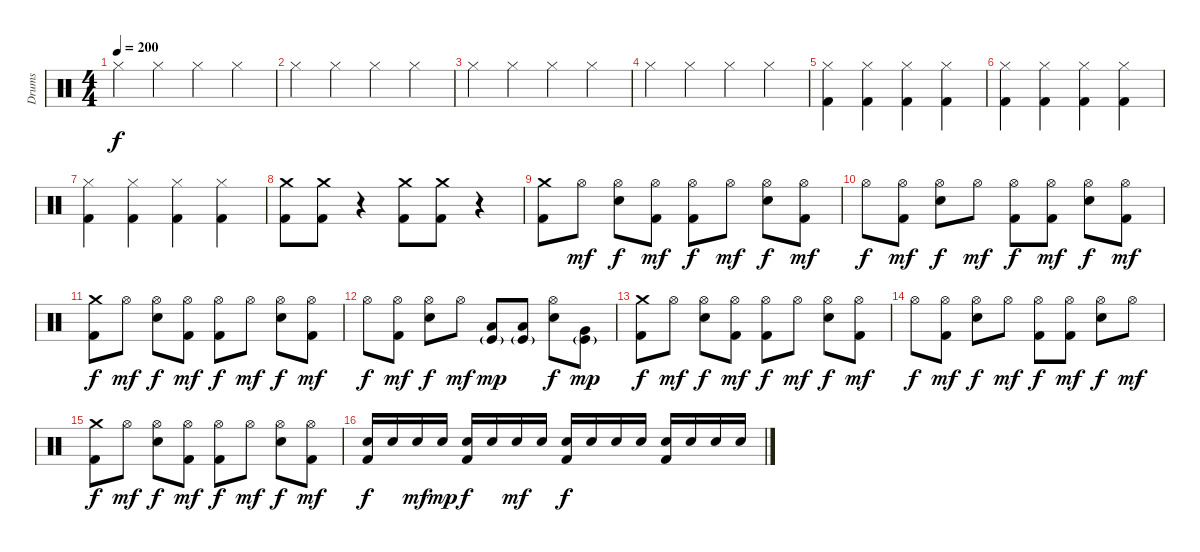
\track ("Drums" "Drums") {instrument percussion}
\staff {score}
\articulation defaults
\ts (4 4)
\tempo 200
\clef neutral
\ks c "Hi-Hat (closed)".4{dy f} "Hi-Hat (closed)".4 "Hi-Hat (closed)".4 "Hi-Hat (closed)".4
|
"Hi-Hat (closed)".4 "Hi-Hat (closed)".4 "Hi-Hat (closed)".4 "Hi-Hat (closed)".4 |
"Hi-Hat (closed)".4 "Hi-Hat (closed)".4 "Hi-Hat (closed)".4 "Hi-Hat (closed)".4 |
"Hi-Hat (closed)".4 "Hi-Hat (closed)".4 "Hi-Hat (closed)".4 "Hi-Hat (closed)".4 |
("Hi-Hat (closed)" "Kick (hit) 2").4 ("Hi-Hat (closed)" "Kick (hit) 2").4 ("Hi-Hat (closed)" "Kick (hit) 2").4 ("Hi-Hat (closed)" "Kick (hit) 2").4 |
("Hi-Hat (closed)" "Kick (hit) 2").4 ("Hi-Hat (closed)" "Kick (hit) 2").4 ("Hi-Hat (closed)" "Kick (hit) 2").4 ("Hi-Hat (closed)" "Kick (hit) 2").4 |
("Hi-Hat (closed)" "Kick (hit) 2").4 ("Hi-Hat (closed)" "Kick (hit) 2").4 ("Hi-Hat (closed)" "Kick (hit) 2").4 ("Hi-Hat (closed)" "Kick (hit) 2").4 |
("Crash medium (hit)" "Kick (hit) 2").8 ("Crash medium (hit)" "Kick (hit) 2").8 r.4 ("Crash medium (hit)" "Kick (hit) 2").8 ("Crash medium (hit)" "Kick (hit) 2").8 r.4 |
("Crash medium (hit)" "Kick (hit) 2").8 "Hi-Hat (open)".8{dy mf} ("Hi-Hat (open)" "Electric Snare (hit)").8{dy f} ("Hi-Hat (open)" "Kick (hit) 2").8{dy mf} ("Hi-Hat (open)" "Kick (hit) 2").8{dy f} "Hi-Hat (open)".8{dy mf} ("Hi-Hat (open)" "Electric Snare (hit)").8{dy f} ("Hi-Hat (open)" "Kick (hit) 2").8{dy mf} |
"Hi-Hat (open)".8{dy f} ("Hi-Hat (open)" "Kick (hit) 2").8{dy mf} ("Hi-Hat (open)" "Electric Snare (hit)").8{dy f} "Hi-Hat (open)".8{dy mf} ("Hi-Hat (open)" "Kick (hit) 2").8{dy f} ("Hi-Hat (open)" "Kick (hit) 2").8{dy mf} ("Hi-Hat (open)" "Electric Snare (hit)").8{dy f} ("Hi-Hat (open)" "Kick (hit) 2").8{dy mf} |
("Crash medium (hit)" "Kick (hit) 2").8{dy f} "Hi-Hat (open)".8{dy mf} ("Hi-Hat (open)" "Electric Snare (hit)").8{dy f} ("Hi-Hat (open)" "Kick (hit) 2").8{dy mf} ("Hi-Hat (open)" "Kick (hit) 2").8{dy f} "Hi-Hat (open)".8{dy mf} ("Hi-Hat (open)" "Electric Snare (hit)").8{dy f} ("Hi-Hat (open)" "Kick (hit) 2").8{dy mf} |
"Hi-Hat (open)".8{dy f} ("Hi-Hat (open)" "Kick (hit) 2").8{dy mf} ("Hi-Hat (open)" "Electric Snare (hit)").8{dy f} "Hi-Hat (open)".8{dy mf} ("Low Tom (hit)" "Kick (hit)"{g}).8{dy mp} ("Low Tom (hit)" "Kick (hit)"{g}).8 ("Hi-Hat (open)" "Electric Snare (hit)").8{dy f} ("Very Low Tom (hit)" "Kick (hit)"{g}).8{dy mp} |
("Crash medium (hit)" "Kick (hit) 2").8{dy f} "Hi-Hat (open)".8{dy mf} ("Hi-Hat (open)" "Electric Snare (hit)").8{dy f} ("Hi-Hat (open)" "Kick (hit) 2").8{dy mf} ("Hi-Hat (open)" "Kick (hit) 2").8{dy f} "Hi-Hat (open)".8{dy mf} ("Hi-Hat (open)" "Electric Snare (hit)").8{dy f} ("Hi-Hat (open)" "Kick (hit) 2").8{dy mf} |
"Hi-Hat (open)".8{dy f} ("Hi-Hat (open)" "Kick (hit) 2").8{dy mf} ("Hi-Hat (open)" "Electric Snare (hit)").8{dy f} "Hi-Hat (open)".8{dy mf} ("Hi-Hat (open)" "Kick (hit) 2").8{dy f} ("Hi-Hat (open)" "Kick (hit) 2").8{dy mf} ("Hi-Hat (open)" "Electric Snare (hit)").8{dy f} "Hi-Hat (open)".8{dy mf} |
("Crash medium (hit)" "Kick (hit) 2").8{dy f} "Hi-Hat (open)".8{dy mf} ("Hi-Hat (open)" "Electric Snare (hit)").8{dy f} ("Hi-Hat (open)" "Kick (hit) 2").8{dy mf} ("Hi-Hat (open)" "Kick (hit) 2").8{dy f} "Hi-Hat (open)".8{dy mf} ("Hi-Hat (open)" "Electric Snare (hit)").8{dy f} ("Hi-Hat (open)" "Kick (hit) 2").8{dy mf} |
("Electric Snare (hit)" "Kick (hit) 2").16{dy f} "Electric Snare (hit)".16 "Electric Snare (hit)".16{dy mf} "Electric Snare (hit)".16{dy mp} ("Electric Snare (hit)" "Kick (hit) 2").16{dy f} "Electric Snare (hit)".16 "Electric Snare (hit)".16{dy mf} "Electric Snare (hit)".16 ("Electric Snare (hit)" "Kick (hit) 2").16{dy f} "Electric Snare (hit)".16 "Electric Snare (hit)".16 "Electric Snare (hit)".16 ("Electric Snare (hit)" "Kick (hit) 2").16 "Electric Snare (hit)".16 "Electric Snare (hit)".16 "Electric Snare (hit)".16
